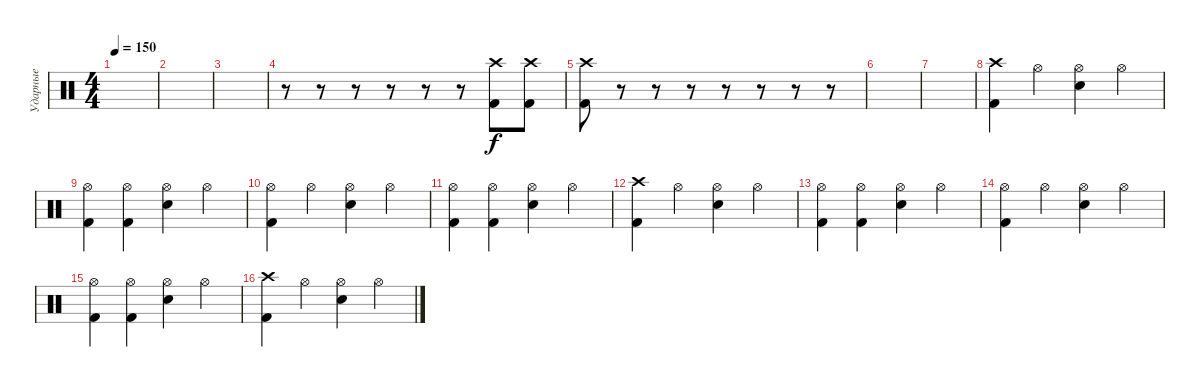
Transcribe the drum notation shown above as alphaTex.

\track ("Ударные" "Ударные") {instrument percussion}
\staff {score}
\articulation defaults
\ts (4 4)
\tempo 150
\clef neutral
\ks c
|
|
|
r.8 r.8 r.8 r.8 r.8 r.8 ("Kick (hit) 2" "Crash high (hit)").8 ("Kick (hit) 2" "Crash high (hit)").8 |
("Kick (hit) 2" "Crash high (hit)").8 r.8 r.8 r.8 r.8 r.8 r.8 r.8 |
|
|
("Kick (hit) 2" "Crash high (hit)").4 "Hi-Hat (open)".4 ("Electric Snare (hit)" "Hi-Hat (open)").4 "Hi-Hat (open)".4 |
("Kick (hit) 2" "Hi-Hat (open)").4 ("Kick (hit) 2" "Hi-Hat (open)").4 ("Electric Snare (hit)" "Hi-Hat (open)").4 "Hi-Hat (open)".4 |
("Kick (hit) 2" "Hi-Hat (open)").4 "Hi-Hat (open)".4 ("Electric Snare (hit)" "Hi-Hat (open)").4 "Hi-Hat (open)".4 |
("Kick (hit) 2" "Hi-Hat (open)").4 ("Kick (hit) 2" "Hi-Hat (open)").4 ("Electric Snare (hit)" "Hi-Hat (open)").4 "Hi-Hat (open)".4 |
("Kick (hit) 2" "Crash high (hit)").4 "Hi-Hat (open)".4 ("Electric Snare (hit)" "Hi-Hat (open)").4 "Hi-Hat (open)".4 |
("Kick (hit) 2" "Hi-Hat (open)").4 ("Kick (hit) 2" "Hi-Hat (open)").4 ("Electric Snare (hit)" "Hi-Hat (open)").4 "Hi-Hat (open)".4 |
("Kick (hit) 2" "Hi-Hat (open)").4 "Hi-Hat (open)".4 ("Electric Snare (hit)" "Hi-Hat (open)").4 "Hi-Hat (open)".4 |
("Kick (hit) 2" "Hi-Hat (open)").4 ("Kick (hit) 2" "Hi-Hat (open)").4 ("Electric Snare (hit)" "Hi-Hat (open)").4 "Hi-Hat (open)".4 |
("Kick (hit) 2" "Crash high (hit)").4 "Hi-Hat (open)".4 ("Electric Snare (hit)" "Hi-Hat (open)").4 "Hi-Hat (open)".4
